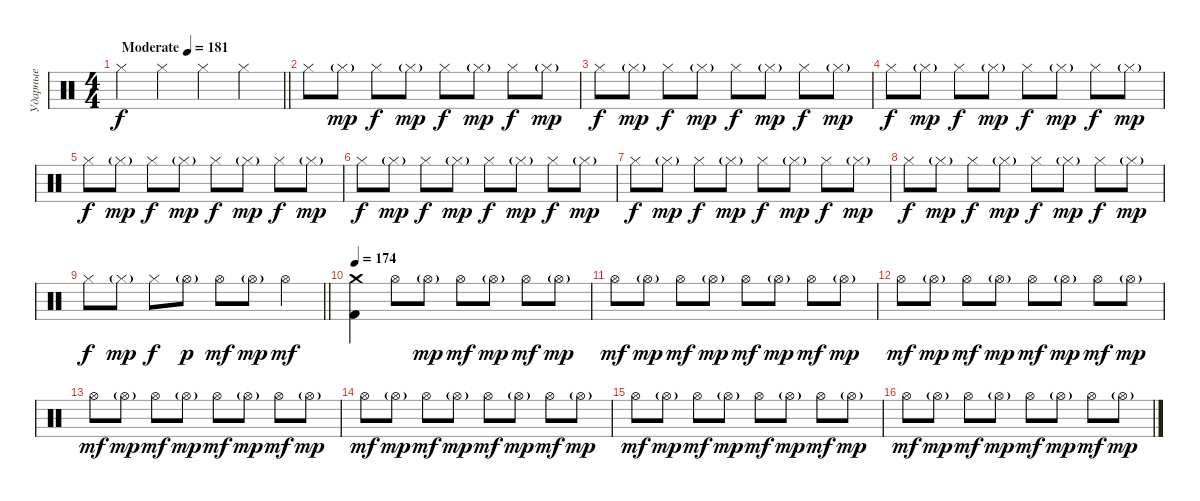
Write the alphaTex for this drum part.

\track ("Ударные" "Ударные") {instrument percussion}
\staff {score}
\articulation defaults
\ts (4 4)
\tempo (181 "Moderate")
\tempo 176
\tempo (181 "Moderate")
\clef neutral
\barLineRight lightlight
\ks c "Hi-Hat (closed)".4{dy f} "Hi-Hat (closed)".4 "Hi-Hat (closed)".4 "Hi-Hat (closed)".4
|
\section ("" " ")
"Hi-Hat (closed)".8 "Hi-Hat (closed)"{g}.8{dy mp} "Hi-Hat (closed)".8{dy f} "Hi-Hat (closed)"{g}.8{dy mp} "Hi-Hat (closed)".8{dy f} "Hi-Hat (closed)"{g}.8{dy mp} "Hi-Hat (closed)".8{dy f} "Hi-Hat (closed)"{g}.8{dy mp} |
"Hi-Hat (closed)".8{dy f} "Hi-Hat (closed)"{g}.8{dy mp} "Hi-Hat (closed)".8{dy f} "Hi-Hat (closed)"{g}.8{dy mp} "Hi-Hat (closed)".8{dy f} "Hi-Hat (closed)"{g}.8{dy mp} "Hi-Hat (closed)".8{dy f} "Hi-Hat (closed)"{g}.8{dy mp} |
"Hi-Hat (closed)".8{dy f} "Hi-Hat (closed)"{g}.8{dy mp} "Hi-Hat (closed)".8{dy f} "Hi-Hat (closed)"{g}.8{dy mp} "Hi-Hat (closed)".8{dy f} "Hi-Hat (closed)"{g}.8{dy mp} "Hi-Hat (closed)".8{dy f} "Hi-Hat (closed)"{g}.8{dy mp} |
"Hi-Hat (closed)".8{dy f} "Hi-Hat (closed)"{g}.8{dy mp} "Hi-Hat (closed)".8{dy f} "Hi-Hat (closed)"{g}.8{dy mp} "Hi-Hat (closed)".8{dy f} "Hi-Hat (closed)"{g}.8{dy mp} "Hi-Hat (closed)".8{dy f} "Hi-Hat (closed)"{g}.8{dy mp} |
"Hi-Hat (closed)".8{dy f} "Hi-Hat (closed)"{g}.8{dy mp} "Hi-Hat (closed)".8{dy f} "Hi-Hat (closed)"{g}.8{dy mp} "Hi-Hat (closed)".8{dy f} "Hi-Hat (closed)"{g}.8{dy mp} "Hi-Hat (closed)".8{dy f} "Hi-Hat (closed)"{g}.8{dy mp} |
"Hi-Hat (closed)".8{dy f} "Hi-Hat (closed)"{g}.8{dy mp} "Hi-Hat (closed)".8{dy f} "Hi-Hat (closed)"{g}.8{dy mp} "Hi-Hat (closed)".8{dy f} "Hi-Hat (closed)"{g}.8{dy mp} "Hi-Hat (closed)".8{dy f} "Hi-Hat (closed)"{g}.8{dy mp} |
"Hi-Hat (closed)".8{dy f} "Hi-Hat (closed)"{g}.8{dy mp} "Hi-Hat (closed)".8{dy f} "Hi-Hat (closed)"{g}.8{dy mp} "Hi-Hat (closed)".8{dy f} "Hi-Hat (closed)"{g}.8{dy mp} "Hi-Hat (closed)".8{dy f} "Hi-Hat (closed)"{g}.8{dy mp} |
\barLineRight lightlight "Hi-Hat (closed)".8{dy f} "Hi-Hat (closed)"{g}.8{dy mp} "Hi-Hat (closed)".8{dy f} "Hi-Hat (open)"{g}.8{dy p} "Hi-Hat (open)".8{dy mf} "Hi-Hat (open)"{g}.8{dy mp} "Hi-Hat (open)".4{dy mf}
|
\section ("" " ")
\tempo 174
("Crash medium (hit)" "Kick (hit) 2").4 "Hi-Hat (open)".8 "Hi-Hat (open)"{g}.8{dy mp} "Hi-Hat (open)".8{dy mf} "Hi-Hat (open)"{g}.8{dy mp} "Hi-Hat (open)".8{dy mf} "Hi-Hat (open)"{g}.8{dy mp} |
"Hi-Hat (open)".8{dy mf} "Hi-Hat (open)"{g}.8{dy mp} "Hi-Hat (open)".8{dy mf} "Hi-Hat (open)"{g}.8{dy mp} "Hi-Hat (open)".8{dy mf} "Hi-Hat (open)"{g}.8{dy mp} "Hi-Hat (open)".8{dy mf} "Hi-Hat (open)"{g}.8{dy mp} |
"Hi-Hat (open)".8{dy mf} "Hi-Hat (open)"{g}.8{dy mp} "Hi-Hat (open)".8{dy mf} "Hi-Hat (open)"{g}.8{dy mp} "Hi-Hat (open)".8{dy mf} "Hi-Hat (open)"{g}.8{dy mp} "Hi-Hat (open)".8{dy mf} "Hi-Hat (open)"{g}.8{dy mp} |
"Hi-Hat (open)".8{dy mf} "Hi-Hat (open)"{g}.8{dy mp} "Hi-Hat (open)".8{dy mf} "Hi-Hat (open)"{g}.8{dy mp} "Hi-Hat (open)".8{dy mf} "Hi-Hat (open)"{g}.8{dy mp} "Hi-Hat (open)".8{dy mf} "Hi-Hat (open)"{g}.8{dy mp} |
"Hi-Hat (open)".8{dy mf} "Hi-Hat (open)"{g}.8{dy mp} "Hi-Hat (open)".8{dy mf} "Hi-Hat (open)"{g}.8{dy mp} "Hi-Hat (open)".8{dy mf} "Hi-Hat (open)"{g}.8{dy mp} "Hi-Hat (open)".8{dy mf} "Hi-Hat (open)"{g}.8{dy mp} |
"Hi-Hat (open)".8{dy mf} "Hi-Hat (open)"{g}.8{dy mp} "Hi-Hat (open)".8{dy mf} "Hi-Hat (open)"{g}.8{dy mp} "Hi-Hat (open)".8{dy mf} "Hi-Hat (open)"{g}.8{dy mp} "Hi-Hat (open)".8{dy mf} "Hi-Hat (open)"{g}.8{dy mp} |
"Hi-Hat (open)".8{dy mf} "Hi-Hat (open)"{g}.8{dy mp} "Hi-Hat (open)".8{dy mf} "Hi-Hat (open)"{g}.8{dy mp} "Hi-Hat (open)".8{dy mf} "Hi-Hat (open)"{g}.8{dy mp} "Hi-Hat (open)".8{dy mf} "Hi-Hat (open)"{g}.8{dy mp}
